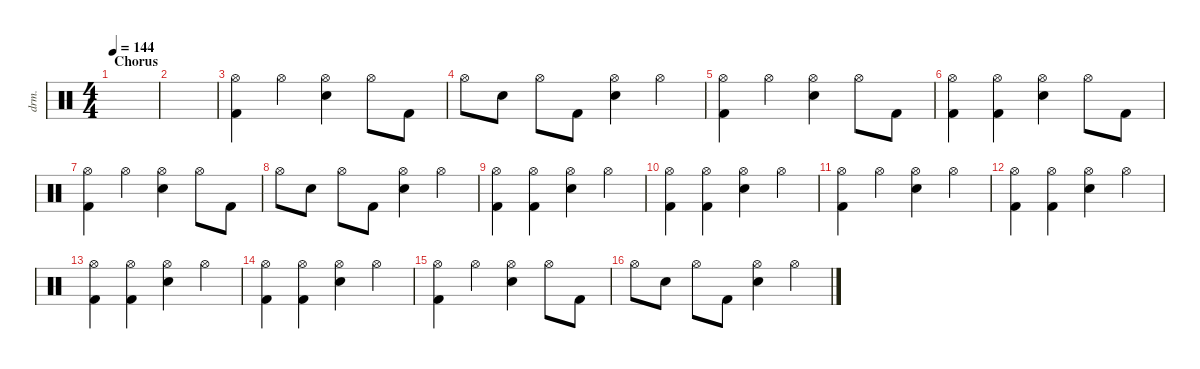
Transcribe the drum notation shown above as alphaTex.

\defaultSystemsLayout 4
\hideDynamics
\bracketExtendMode nobrackets
\otherSystemsTrackNameOrientation horizontal
\track ("Drumkit" "drm.") {instrument percussion}
\staff {score}
\articulation defaults
\ts (4 4)
\section ("" "Chorus")
\tempo 144
\clef neutral
\ks c
|
|
("Hi-Hat (open)" "Kick (hit) 2").4{beam Down} "Hi-Hat (open)".4{beam Down} ("Hi-Hat (open)" "Snare (hit) 2").4{beam Down} "Hi-Hat (open)".8{beam Down} "Kick (hit) 2".8{beam Down} |
"Hi-Hat (open)".8{beam Down} "Snare (hit) 2".8{beam Down} "Hi-Hat (open)".8{beam Down} "Kick (hit) 2".8{beam Down} ("Snare (hit) 2" "Hi-Hat (open)").4{beam Down} "Hi-Hat (open)".4{beam Down} |
("Hi-Hat (open)" "Kick (hit) 2").4{beam Down} "Hi-Hat (open)".4{beam Down} ("Hi-Hat (open)" "Snare (hit) 2").4{beam Down} "Hi-Hat (open)".8{beam Down} "Kick (hit) 2".8{beam Down} |
("Hi-Hat (open)" "Kick (hit) 2").4{beam Down} ("Hi-Hat (open)" "Kick (hit) 2").4{beam Down} ("Hi-Hat (open)" "Snare (hit) 2").4{beam Down} "Hi-Hat (open)".8{beam Down} "Kick (hit) 2".8{beam Down} |
("Hi-Hat (open)" "Kick (hit) 2").4{beam Down} "Hi-Hat (open)".4{beam Down} ("Hi-Hat (open)" "Snare (hit) 2").4{beam Down} "Hi-Hat (open)".8{beam Down} "Kick (hit) 2".8{beam Down} |
"Hi-Hat (open)".8{beam Down} "Snare (hit) 2".8{beam Down} "Hi-Hat (open)".8{beam Down} "Kick (hit) 2".8{beam Down} ("Snare (hit) 2" "Hi-Hat (open)").4{beam Down} "Hi-Hat (open)".4{beam Down} |
("Hi-Hat (open)" "Kick (hit) 2").4{beam Down} ("Hi-Hat (open)" "Kick (hit) 2").4{beam Down} ("Hi-Hat (open)" "Snare (hit) 2").4{beam Down} "Hi-Hat (open)".4{beam Down} |
("Hi-Hat (open)" "Kick (hit) 2").4{beam Down} ("Hi-Hat (open)" "Kick (hit) 2").4{beam Down} ("Hi-Hat (open)" "Snare (hit) 2").4{beam Down} "Hi-Hat (open)".4{beam Down} |
("Hi-Hat (open)" "Kick (hit) 2").4{beam Down} "Hi-Hat (open)".4{beam Down} ("Hi-Hat (open)" "Snare (hit) 2").4{beam Down} "Hi-Hat (open)".4{beam Down} |
("Hi-Hat (open)" "Kick (hit) 2").4{beam Down} ("Hi-Hat (open)" "Kick (hit) 2").4{beam Down} ("Hi-Hat (open)" "Snare (hit) 2").4{beam Down} "Hi-Hat (open)".4{beam Down} |
("Hi-Hat (open)" "Kick (hit) 2").4{beam Down} ("Hi-Hat (open)" "Kick (hit) 2").4{beam Down} ("Hi-Hat (open)" "Snare (hit) 2").4{beam Down} "Hi-Hat (open)".4{beam Down} |
("Hi-Hat (open)" "Kick (hit) 2").4{beam Down} ("Hi-Hat (open)" "Kick (hit) 2").4{beam Down} ("Hi-Hat (open)" "Snare (hit) 2").4{beam Down} "Hi-Hat (open)".4{beam Down} |
("Hi-Hat (open)" "Kick (hit) 2").4{beam Down} "Hi-Hat (open)".4{beam Down} ("Hi-Hat (open)" "Snare (hit) 2").4{beam Down} "Hi-Hat (open)".8{beam Down} "Kick (hit) 2".8{beam Down} |
"Hi-Hat (open)".8{beam Down} "Snare (hit) 2".8{beam Down} "Hi-Hat (open)".8{beam Down} "Kick (hit) 2".8{beam Down} ("Snare (hit) 2" "Hi-Hat (open)").4{beam Down} "Hi-Hat (open)".4{beam Down}
